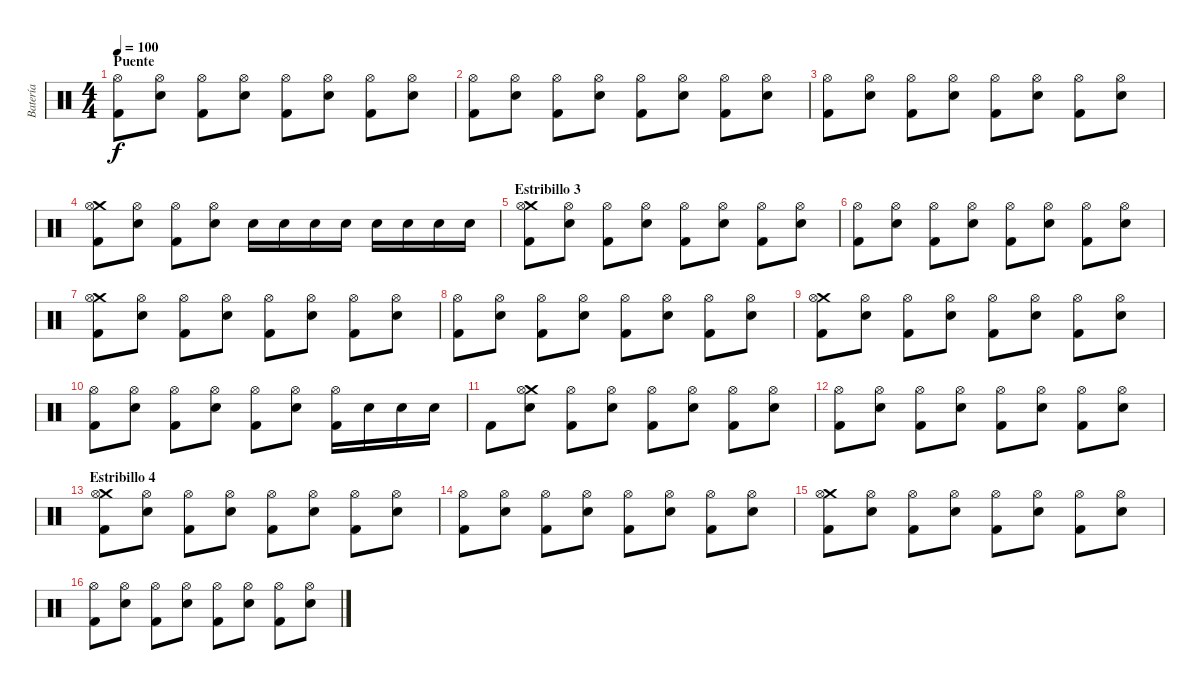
\track ("Batería" "Batería") {instrument percussion}
\staff {score}
\articulation defaults
\ts (4 4)
\section ("" "Puente")
\tempo 100
\clef neutral
\ks c
("Hi-Hat (open)" "Kick (hit) 2").8{dy f} ("Hi-Hat (open)" "Snare (hit) 2").8 ("Hi-Hat (open)" "Kick (hit) 2").8 ("Hi-Hat (open)" "Snare (hit) 2").8 ("Hi-Hat (open)" "Kick (hit) 2").8 ("Hi-Hat (open)" "Snare (hit) 2").8 ("Hi-Hat (open)" "Kick (hit) 2").8 ("Hi-Hat (open)" "Snare (hit) 2").8 |
("Hi-Hat (open)" "Kick (hit) 2").8 ("Hi-Hat (open)" "Snare (hit) 2").8 ("Hi-Hat (open)" "Kick (hit) 2").8 ("Hi-Hat (open)" "Snare (hit) 2").8 ("Hi-Hat (open)" "Kick (hit) 2").8 ("Hi-Hat (open)" "Snare (hit) 2").8 ("Hi-Hat (open)" "Kick (hit) 2").8 ("Hi-Hat (open)" "Snare (hit) 2").8 |
("Hi-Hat (open)" "Kick (hit) 2").8 ("Hi-Hat (open)" "Snare (hit) 2").8 ("Hi-Hat (open)" "Kick (hit) 2").8 ("Hi-Hat (open)" "Snare (hit) 2").8 ("Hi-Hat (open)" "Kick (hit) 2").8 ("Hi-Hat (open)" "Snare (hit) 2").8 ("Hi-Hat (open)" "Kick (hit) 2").8 ("Hi-Hat (open)" "Snare (hit) 2").8 |
("Crash medium (hit)" "Hi-Hat (open)" "Kick (hit) 2").8 ("Hi-Hat (open)" "Snare (hit) 2").8 ("Hi-Hat (open)" "Kick (hit) 2").8 ("Hi-Hat (open)" "Snare (hit) 2").8 "Snare (hit) 2".16 "Snare (hit) 2".16 "Snare (hit) 2".16 "Snare (hit) 2".16 "Snare (hit) 2".16 "Snare (hit) 2".16 "Snare (hit) 2".16 "Snare (hit) 2".16 |
\section ("" "Estribillo 3")
("Crash medium (hit)" "Hi-Hat (open)" "Kick (hit) 2").8 ("Hi-Hat (open)" "Snare (hit) 2").8 ("Hi-Hat (open)" "Kick (hit) 2").8 ("Hi-Hat (open)" "Snare (hit) 2").8 ("Hi-Hat (open)" "Kick (hit) 2").8 ("Hi-Hat (open)" "Snare (hit) 2").8 ("Hi-Hat (open)" "Kick (hit) 2").8 ("Hi-Hat (open)" "Snare (hit) 2").8 |
("Hi-Hat (open)" "Kick (hit) 2").8 ("Hi-Hat (open)" "Snare (hit) 2").8 ("Hi-Hat (open)" "Kick (hit) 2").8 ("Hi-Hat (open)" "Snare (hit) 2").8 ("Hi-Hat (open)" "Kick (hit) 2").8 ("Hi-Hat (open)" "Snare (hit) 2").8 ("Hi-Hat (open)" "Kick (hit) 2").8 ("Hi-Hat (open)" "Snare (hit) 2").8 |
("Crash medium (hit)" "Hi-Hat (open)" "Kick (hit) 2").8 ("Hi-Hat (open)" "Snare (hit) 2").8 ("Hi-Hat (open)" "Kick (hit) 2").8 ("Hi-Hat (open)" "Snare (hit) 2").8 ("Hi-Hat (open)" "Kick (hit) 2").8 ("Hi-Hat (open)" "Snare (hit) 2").8 ("Hi-Hat (open)" "Kick (hit) 2").8 ("Hi-Hat (open)" "Snare (hit) 2").8 |
("Hi-Hat (open)" "Kick (hit) 2").8 ("Hi-Hat (open)" "Snare (hit) 2").8 ("Hi-Hat (open)" "Kick (hit) 2").8 ("Hi-Hat (open)" "Snare (hit) 2").8 ("Hi-Hat (open)" "Kick (hit) 2").8 ("Hi-Hat (open)" "Snare (hit) 2").8 ("Hi-Hat (open)" "Kick (hit) 2").8 ("Hi-Hat (open)" "Snare (hit) 2").8 |
("Crash medium (hit)" "Hi-Hat (open)" "Kick (hit) 2").8 ("Hi-Hat (open)" "Snare (hit) 2").8 ("Hi-Hat (open)" "Kick (hit) 2").8 ("Hi-Hat (open)" "Snare (hit) 2").8 ("Hi-Hat (open)" "Kick (hit) 2").8 ("Hi-Hat (open)" "Snare (hit) 2").8 ("Hi-Hat (open)" "Kick (hit) 2").8 ("Hi-Hat (open)" "Snare (hit) 2").8 |
("Hi-Hat (open)" "Kick (hit) 2").8 ("Hi-Hat (open)" "Snare (hit) 2").8 ("Hi-Hat (open)" "Kick (hit) 2").8 ("Hi-Hat (open)" "Snare (hit) 2").8 ("Hi-Hat (open)" "Kick (hit) 2").8 ("Hi-Hat (open)" "Snare (hit) 2").8 ("Hi-Hat (open)" "Kick (hit) 2").16 "Snare (hit) 2".16 "Snare (hit) 2".16 "Snare (hit) 2".16 |
"Kick (hit) 2".8 ("Crash medium (hit)" "Hi-Hat (open)" "Snare (hit) 2").8 ("Hi-Hat (open)" "Kick (hit) 2").8 ("Hi-Hat (open)" "Snare (hit) 2").8 ("Hi-Hat (open)" "Kick (hit) 2").8 ("Hi-Hat (open)" "Snare (hit) 2").8 ("Hi-Hat (open)" "Kick (hit) 2").8 ("Hi-Hat (open)" "Snare (hit) 2").8 |
("Hi-Hat (open)" "Kick (hit) 2").8 ("Hi-Hat (open)" "Snare (hit) 2").8 ("Hi-Hat (open)" "Kick (hit) 2").8 ("Hi-Hat (open)" "Snare (hit) 2").8 ("Hi-Hat (open)" "Kick (hit) 2").8 ("Hi-Hat (open)" "Snare (hit) 2").8 ("Hi-Hat (open)" "Kick (hit) 2").8 ("Hi-Hat (open)" "Snare (hit) 2").8 |
\section ("" "Estribillo 4")
("Crash medium (hit)" "Hi-Hat (open)" "Kick (hit) 2").8 ("Hi-Hat (open)" "Snare (hit) 2").8 ("Hi-Hat (open)" "Kick (hit) 2").8 ("Hi-Hat (open)" "Snare (hit) 2").8 ("Hi-Hat (open)" "Kick (hit) 2").8 ("Hi-Hat (open)" "Snare (hit) 2").8 ("Hi-Hat (open)" "Kick (hit) 2").8 ("Hi-Hat (open)" "Snare (hit) 2").8 |
("Hi-Hat (open)" "Kick (hit) 2").8 ("Hi-Hat (open)" "Snare (hit) 2").8 ("Hi-Hat (open)" "Kick (hit) 2").8 ("Hi-Hat (open)" "Snare (hit) 2").8 ("Hi-Hat (open)" "Kick (hit) 2").8 ("Hi-Hat (open)" "Snare (hit) 2").8 ("Hi-Hat (open)" "Kick (hit) 2").8 ("Hi-Hat (open)" "Snare (hit) 2").8 |
("Crash medium (hit)" "Hi-Hat (open)" "Kick (hit) 2").8 ("Hi-Hat (open)" "Snare (hit) 2").8 ("Hi-Hat (open)" "Kick (hit) 2").8 ("Hi-Hat (open)" "Snare (hit) 2").8 ("Hi-Hat (open)" "Kick (hit) 2").8 ("Hi-Hat (open)" "Snare (hit) 2").8 ("Hi-Hat (open)" "Kick (hit) 2").8 ("Hi-Hat (open)" "Snare (hit) 2").8 |
("Hi-Hat (open)" "Kick (hit) 2").8 ("Hi-Hat (open)" "Snare (hit) 2").8 ("Hi-Hat (open)" "Kick (hit) 2").8 ("Hi-Hat (open)" "Snare (hit) 2").8 ("Hi-Hat (open)" "Kick (hit) 2").8 ("Hi-Hat (open)" "Snare (hit) 2").8 ("Hi-Hat (open)" "Kick (hit) 2").8 ("Hi-Hat (open)" "Snare (hit) 2").8
